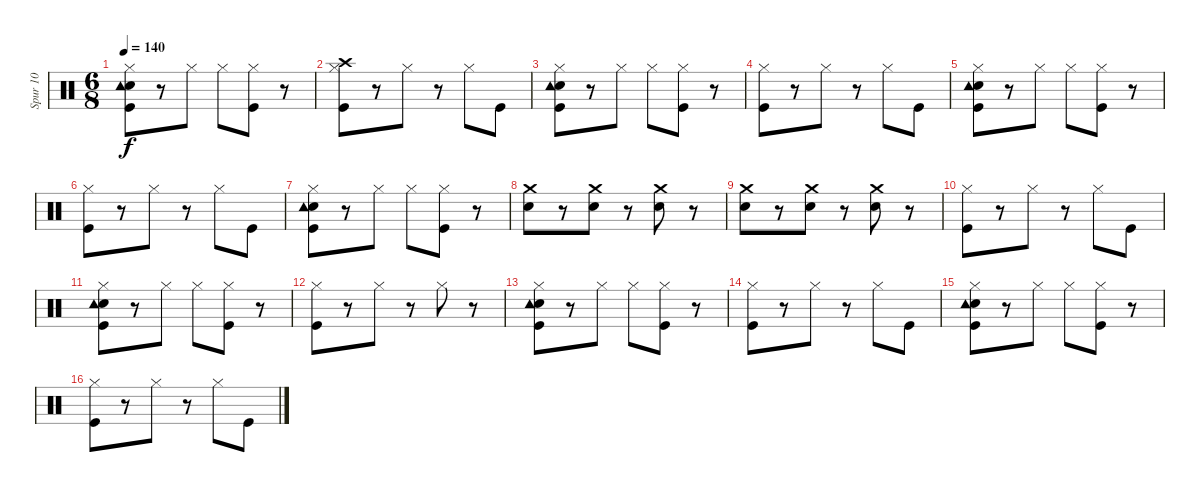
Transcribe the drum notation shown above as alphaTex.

\track ("Spur 10" "Spur 10") {instrument percussion}
\staff {score}
\articulation defaults
\ts (6 8)
\tempo 140
\clef neutral
\ks c
("Kick (hit)" "Snare (hit) 2" "Tambourine (hit)" "Hi-Hat (closed)").8{dy f} r.8 "Hi-Hat (closed)".8 "Hi-Hat (closed)".8 ("Kick (hit)" "Hi-Hat (closed)").8 r.8 |
("Crash high (hit)" "Kick (hit)" "Hi-Hat (closed)").8 r.8 "Hi-Hat (closed)".8 r.8 "Hi-Hat (closed)".8 "Kick (hit)".8 |
("Kick (hit)" "Snare (hit) 2" "Tambourine (hit)" "Hi-Hat (closed)").8 r.8 "Hi-Hat (closed)".8 "Hi-Hat (closed)".8 ("Kick (hit)" "Hi-Hat (closed)").8 r.8 |
("Kick (hit)" "Hi-Hat (closed)").8 r.8 "Hi-Hat (closed)".8 r.8 "Hi-Hat (closed)".8 "Kick (hit)".8 |
("Kick (hit)" "Snare (hit) 2" "Tambourine (hit)" "Hi-Hat (closed)").8 r.8 "Hi-Hat (closed)".8 "Hi-Hat (closed)".8 ("Kick (hit)" "Hi-Hat (closed)").8 r.8 |
("Kick (hit)" "Hi-Hat (closed)").8 r.8 "Hi-Hat (closed)".8 r.8 "Hi-Hat (closed)".8 "Kick (hit)".8 |
("Kick (hit)" "Snare (hit) 2" "Tambourine (hit)" "Hi-Hat (closed)").8 r.8 "Hi-Hat (closed)".8 "Hi-Hat (closed)".8 ("Kick (hit)" "Hi-Hat (closed)").8 r.8 |
("Crash medium (hit)" "Snare (hit) 2").8 r.8 ("Crash medium (hit)" "Snare (hit) 2").8 r.8 ("Crash medium (hit)" "Snare (hit) 2").8 r.8 |
("Crash medium (hit)" "Snare (hit) 2").8 r.8 ("Crash medium (hit)" "Snare (hit) 2").8 r.8 ("Crash medium (hit)" "Snare (hit) 2").8 r.8 |
("Kick (hit)" "Hi-Hat (closed)").8 r.8 "Hi-Hat (closed)".8 r.8 "Hi-Hat (closed)".8 "Kick (hit)".8 |
("Kick (hit)" "Snare (hit) 2" "Tambourine (hit)" "Hi-Hat (closed)").8 r.8 "Hi-Hat (closed)".8 "Hi-Hat (closed)".8 ("Kick (hit)" "Hi-Hat (closed)").8 r.8 |
("Kick (hit)" "Hi-Hat (closed)").8 r.8 "Hi-Hat (closed)".8 r.8 "Hi-Hat (closed)".8 r.8 |
("Kick (hit)" "Snare (hit) 2" "Tambourine (hit)" "Hi-Hat (closed)").8 r.8 "Hi-Hat (closed)".8 "Hi-Hat (closed)".8 ("Kick (hit)" "Hi-Hat (closed)").8 r.8 |
("Kick (hit)" "Hi-Hat (closed)").8 r.8 "Hi-Hat (closed)".8 r.8 "Hi-Hat (closed)".8 "Kick (hit)".8 |
("Kick (hit)" "Snare (hit) 2" "Tambourine (hit)" "Hi-Hat (closed)").8 r.8 "Hi-Hat (closed)".8 "Hi-Hat (closed)".8 ("Kick (hit)" "Hi-Hat (closed)").8 r.8 |
("Kick (hit)" "Hi-Hat (closed)").8 r.8 "Hi-Hat (closed)".8 r.8 "Hi-Hat (closed)".8 "Kick (hit)".8
